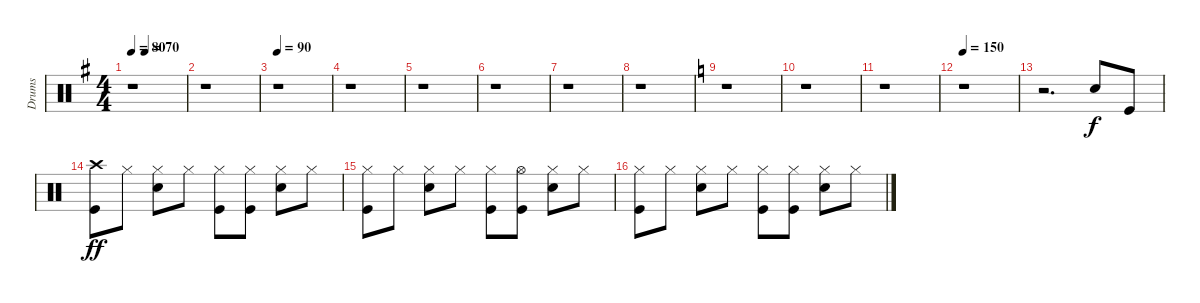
\track ("Drums" "Drums") {instrument percussion}
\staff {score}
\articulation defaults
\ts (4 4)
\tempo 80
\tempo (70 0.25)
\clef neutral
\ks g
r.1{dy f} |
r.1 |
\tempo 90
r.1 |
r.1 |
r.1 |
r.1 |
r.1 |
r.1 |
\ks c
r.1 |
r.1 |
r.1 |
\tempo 150
r.1 |
r.2{d} "Snare (hit) 2".8 "Kick (hit)".8 |
("Crash high (hit)" "Kick (hit)").8{dy ff} "Hi-Hat (closed)".8 ("Hi-Hat (closed)" "Snare (hit) 2").8 "Hi-Hat (closed)".8 ("Hi-Hat (closed)" "Kick (hit)").8 ("Hi-Hat (closed)" "Kick (hit)").8 ("Hi-Hat (closed)" "Snare (hit) 2").8 "Hi-Hat (closed)".8 |
("Hi-Hat (closed)" "Kick (hit)").8 "Hi-Hat (closed)".8 ("Hi-Hat (closed)" "Snare (hit) 2").8 "Hi-Hat (closed)".8 ("Hi-Hat (closed)" "Kick (hit)").8 ("Hi-Hat (open)" "Kick (hit)").8 ("Hi-Hat (closed)" "Snare (hit) 2").8 "Hi-Hat (closed)".8 |
("Hi-Hat (closed)" "Kick (hit)").8 "Hi-Hat (closed)".8 ("Hi-Hat (closed)" "Snare (hit) 2").8 "Hi-Hat (closed)".8 ("Hi-Hat (closed)" "Kick (hit)").8 ("Hi-Hat (closed)" "Kick (hit)").8 ("Hi-Hat (closed)" "Snare (hit) 2").8 "Hi-Hat (closed)".8
